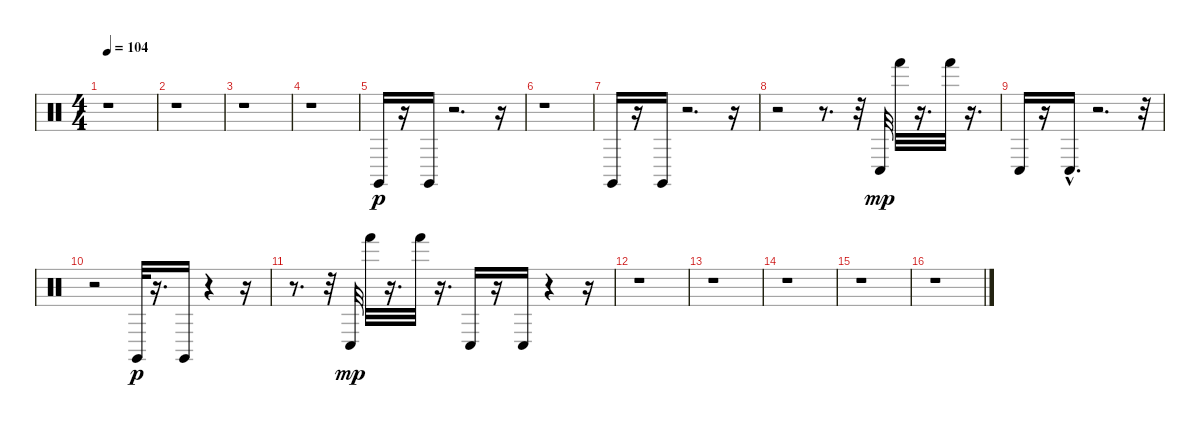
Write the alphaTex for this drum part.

\track "" {instrument percussion}
\staff {score}
\articulation defaults
\ts (4 4)
\tempo 104
\clef neutral
\ks c
r.1{dy p} |
r.1 |
r.1 |
r.1 |
"Claves (hit)".16 r.16 "Claves (hit)".16 r.2{d} r.16 |
r.1 |
"Claves (hit)".16 r.16 "Claves (hit)".16 r.2{d} r.16 |
r.2 r.8{d} r.32 "Conga low (hit)".32{dy mp} "Hand (hit)".32 r.16{d} "Hand (hit)".32 r.16{d} |
"Conga low (hit)".16 r.16 "Conga low (hit)"{hac}.16{d} r.2{d} r.32 |
r.2 "Claves (hit)".32{dy p} r.16{d} "Claves (hit)".16 r.4 r.16 |
r.8{d} r.32 "Conga low (hit)".32{dy mp} "Hand (hit)".32 r.16{d} "Hand (hit)".32 r.16{d} "Conga low (hit)".16 r.16 "Conga low (hit)".16 r.4 r.16 |
r.1 |
r.1 |
r.1 |
r.1 |
r.1
